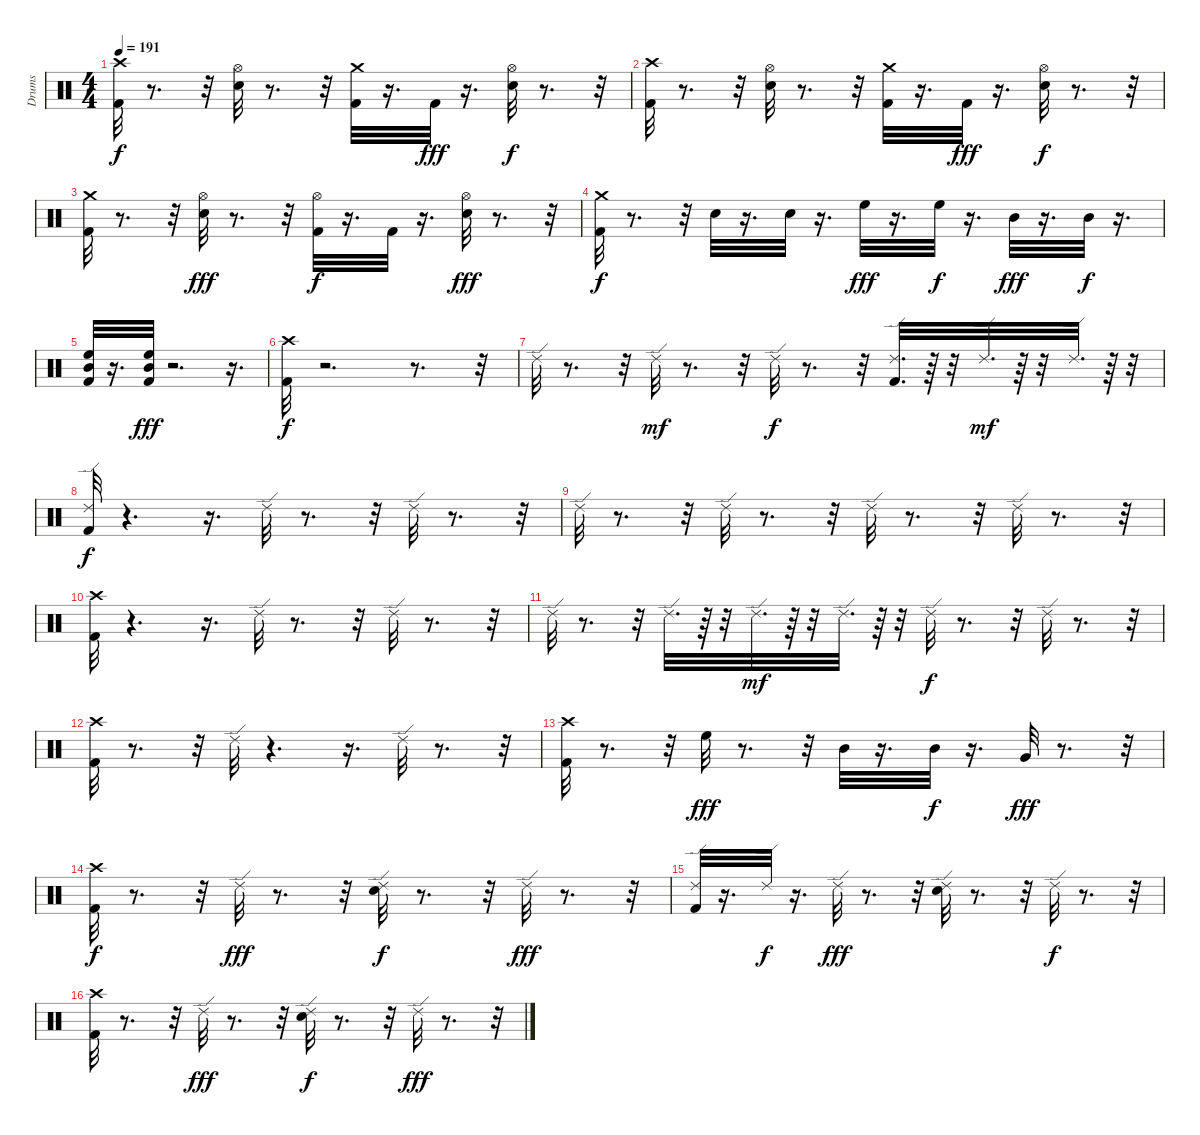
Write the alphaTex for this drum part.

\track ("Drums" "Drums") {instrument percussion}
\staff {score}
\articulation defaults
\ts (4 4)
\tempo 191
\clef neutral
\ks c
("Crash high (hit)" "Kick (hit) 2").32{dy f} r.8{d} r.32 ("Hi-Hat (open)" "Snare (hit) 2").32 r.8{d} r.32 ("Crash medium (hit)" "Kick (hit) 2").32 r.16{d} "Kick (hit) 2".32{dy fff} r.16{d} ("Snare (hit) 2" "Hi-Hat (open)").32{dy f} r.8{d} r.32 |
("Crash high (hit)" "Kick (hit) 2").32 r.8{d} r.32 ("Hi-Hat (open)" "Snare (hit) 2").32 r.8{d} r.32 ("Crash medium (hit)" "Kick (hit) 2").32 r.16{d} "Kick (hit) 2".32{dy fff} r.16{d} ("Hi-Hat (open)" "Snare (hit) 2").32{dy f} r.8{d} r.32 |
("Crash medium (hit)" "Kick (hit) 2").32 r.8{d} r.32 ("Hi-Hat (open)" "Snare (hit) 2").32{dy fff} r.8{d} r.32 ("Hi-Hat (open)" "Kick (hit) 2").32{dy f} r.16{d} "Kick (hit) 2".32 r.16{d} ("Hi-Hat (open)" "Snare (hit) 2").32{dy fff} r.8{d} r.32 |
("Crash medium (hit)" "Kick (hit) 2").32{dy f} r.8{d} r.32 "Snare (hit) 2".32 r.16{d} "Snare (hit) 2".32 r.16{d} "High Floor Tom (hit)".32{dy fff} r.16{d} "High Floor Tom (hit)".32{dy f} r.16{d} "Mid Tom (hit)".32{dy fff} r.16{d} "Mid Tom (hit)".32{dy f} r.16{d} |
("Kick (hit) 2" "High Floor Tom (hit)" "Mid Tom (hit)").32 r.16{d} ("Kick (hit) 2" "Mid Tom (hit)" "High Floor Tom (hit)").32{dy fff} r.2{d} r.16{d} |
("Kick (hit) 2" "Crash high (hit)").32{dy f} r.2{d} r.8{d} r.32 |
"Ride (edge) 2".32 r.8{d} r.32 "Ride (edge) 2".32{dy mf} r.8{d} r.32 "Ride (edge) 2".32{dy f} r.8{d} r.32 ("Ride (edge) 2" "Kick (hit) 2").32{d} r.64 r.32 "Ride (edge) 2".32{d dy mf} r.64 r.32 "Ride (edge) 2".32{d} r.64 r.32 |
("Ride (edge) 2" "Kick (hit) 2").32{dy f} r.4{d} r.16{d} "Ride (edge) 2".32 r.8{d} r.32 "Ride (edge) 2".32 r.8{d} r.32 |
"Ride (edge) 2".32 r.8{d} r.32 "Ride (edge) 2".32 r.8{d} r.32 "Ride (edge) 2".32 r.8{d} r.32 "Ride (edge) 2".32 r.8{d} r.32 |
("Crash high (hit)" "Kick (hit) 2").32 r.4{d} r.16{d} "Ride (edge) 2".32 r.8{d} r.32 "Ride (edge) 2".32 r.8{d} r.32 |
"Ride (edge) 2".32 r.8{d} r.32 "Ride (edge) 2".32{d} r.64 r.32 "Ride (edge) 2".32{d dy mf} r.64 r.32 "Ride (edge) 2".32{d} r.64 r.32 "Ride (edge) 2".32{dy f} r.8{d} r.32 "Ride (edge) 2".32 r.8{d} r.32 |
("Crash high (hit)" "Kick (hit) 2").32 r.8{d} r.32 "Ride (edge) 2".32 r.4{d} r.16{d} "Ride (edge) 2".32 r.8{d} r.32 |
("Crash high (hit)" "Kick (hit) 2").32 r.8{d} r.32 "High Floor Tom (hit)".32{dy fff} r.8{d} r.32 "Mid Tom (hit)".32 r.16{d} "Mid Tom (hit)".32{dy f} r.16{d} "Very Low Tom (hit)".32{dy fff} r.8{d} r.32 |
("Crash high (hit)" "Kick (hit) 2").32{dy f} r.8{d} r.32 "Ride (edge) 2".32{dy fff} r.8{d} r.32 ("Snare (hit) 2" "Ride (edge) 2").32{dy f} r.8{d} r.32 "Ride (edge) 2".32{dy fff} r.8{d} r.32 |
("Kick (hit) 2" "Ride (edge) 2").32 r.16{d} "Ride (edge) 2".32{dy f} r.16{d} "Ride (edge) 2".32{dy fff} r.8{d} r.32 ("Snare (hit) 2" "Ride (edge) 2").32 r.8{d} r.32 "Ride (edge) 2".32{dy f} r.8{d} r.32 |
("Crash high (hit)" "Kick (hit) 2").32 r.8{d} r.32 "Ride (edge) 2".32{dy fff} r.8{d} r.32 ("Snare (hit) 2" "Ride (edge) 2").32{dy f} r.8{d} r.32 "Ride (edge) 2".32{dy fff} r.8{d} r.32
